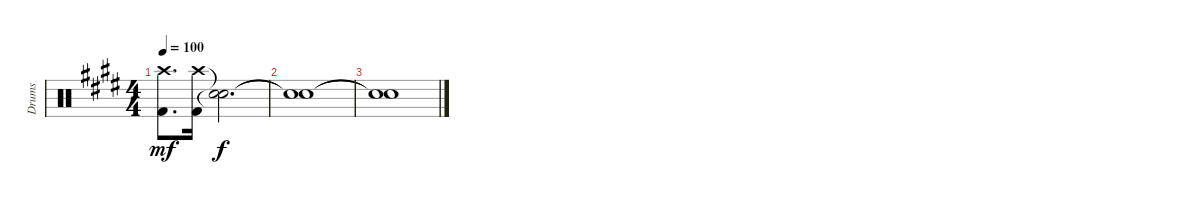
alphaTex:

\track ("Drums" "Drums") {instrument percussion}
\staff {score}
\articulation defaults
\ts (4 4)
\tempo 100
\clef neutral
\ks e
("Crash high (hit)" "Kick (hit) 2").8{d dy mf} ("Crash high (hit)" "Kick (hit) 2").16 ("Snare (hit)"{t} "Snare (hit)"{t}).2{d dy f} |
("Snare (hit)"{t} "Snare (hit)"{t}).1 |
("Snare (hit)"{t} "Snare (hit)"{t}).1
